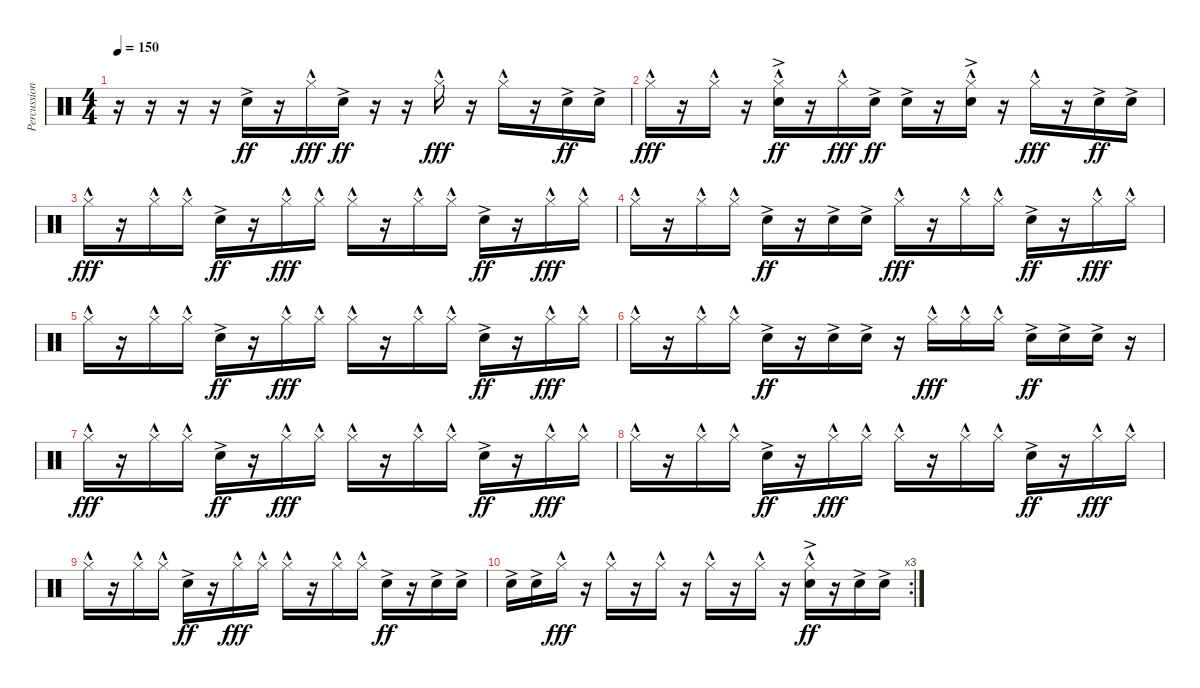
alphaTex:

\track ("Percussion" "Percussion") {instrument percussion}
\staff {score}
\articulation defaults
\ts (4 4)
\tempo 150
\clef neutral
\ks c
r.16{dy ff} r.16 r.16 r.16 "Snare (hit) 2"{ac}.16 r.16 "Hi-Hat (closed)"{hac}.16{dy fff} "Snare (hit) 2"{ac}.16{dy ff} r.16 r.16 "Hi-Hat (closed)"{hac}.16{dy fff} r.16 "Hi-Hat (closed)"{hac}.16 r.16 "Snare (hit) 2"{ac}.16{dy ff} "Snare (hit) 2"{ac}.16 |
"Hi-Hat (closed)"{hac}.16{dy fff} r.16 "Hi-Hat (closed)"{hac}.16 r.16 ("Hi-Hat (closed)"{hac} "Snare (hit) 2"{ac}).16{dy ff} r.16 "Hi-Hat (closed)"{hac}.16{dy fff} "Snare (hit) 2"{ac}.16{dy ff} "Snare (hit) 2"{ac}.16 r.16 ("Hi-Hat (closed)"{hac} "Snare (hit) 2"{ac}).16 r.16 "Hi-Hat (closed)"{hac}.16{dy fff} r.16 "Snare (hit) 2"{ac}.16{dy ff} "Snare (hit) 2"{ac}.16 |
"Hi-Hat (closed)"{hac}.16{dy fff} r.16 "Hi-Hat (closed)"{hac}.16 "Hi-Hat (closed)"{hac}.16 "Snare (hit) 2"{ac}.16{dy ff} r.16 "Hi-Hat (closed)"{hac}.16{dy fff} "Hi-Hat (closed)"{hac}.16 "Hi-Hat (closed)"{hac}.16 r.16 "Hi-Hat (closed)"{hac}.16 "Hi-Hat (closed)"{hac}.16 "Snare (hit) 2"{ac}.16{dy ff} r.16 "Hi-Hat (closed)"{hac}.16{dy fff} "Hi-Hat (closed)"{hac}.16 |
"Hi-Hat (closed)"{hac}.16 r.16 "Hi-Hat (closed)"{hac}.16 "Hi-Hat (closed)"{hac}.16 "Snare (hit) 2"{ac}.16{dy ff} r.16 "Snare (hit) 2"{ac}.16 "Snare (hit) 2"{ac}.16 "Hi-Hat (closed)"{hac}.16{dy fff} r.16 "Hi-Hat (closed)"{hac}.16 "Hi-Hat (closed)"{hac}.16 "Snare (hit) 2"{ac}.16{dy ff} r.16 "Hi-Hat (closed)"{hac}.16{dy fff} "Hi-Hat (closed)"{hac}.16 |
"Hi-Hat (closed)"{hac}.16 r.16 "Hi-Hat (closed)"{hac}.16 "Hi-Hat (closed)"{hac}.16 "Snare (hit) 2"{ac}.16{dy ff} r.16 "Hi-Hat (closed)"{hac}.16{dy fff} "Hi-Hat (closed)"{hac}.16 "Hi-Hat (closed)"{hac}.16 r.16 "Hi-Hat (closed)"{hac}.16 "Hi-Hat (closed)"{hac}.16 "Snare (hit) 2"{ac}.16{dy ff} r.16 "Hi-Hat (closed)"{hac}.16{dy fff} "Hi-Hat (closed)"{hac}.16 |
"Hi-Hat (closed)"{hac}.16 r.16 "Hi-Hat (closed)"{hac}.16 "Hi-Hat (closed)"{hac}.16 "Snare (hit) 2"{ac}.16{dy ff} r.16 "Snare (hit) 2"{ac}.16 "Snare (hit) 2"{ac}.16 r.16 "Hi-Hat (closed)"{hac}.16{dy fff} "Hi-Hat (closed)"{hac}.16 "Hi-Hat (closed)"{hac}.16 "Snare (hit) 2"{ac}.16{dy ff} "Snare (hit) 2"{ac}.16 "Snare (hit) 2"{ac}.16 r.16 |
"Hi-Hat (closed)"{hac}.16{dy fff} r.16 "Hi-Hat (closed)"{hac}.16 "Hi-Hat (closed)"{hac}.16 "Snare (hit) 2"{ac}.16{dy ff} r.16 "Hi-Hat (closed)"{hac}.16{dy fff} "Hi-Hat (closed)"{hac}.16 "Hi-Hat (closed)"{hac}.16 r.16 "Hi-Hat (closed)"{hac}.16 "Hi-Hat (closed)"{hac}.16 "Snare (hit) 2"{ac}.16{dy ff} r.16 "Hi-Hat (closed)"{hac}.16{dy fff} "Hi-Hat (closed)"{hac}.16 |
"Hi-Hat (closed)"{hac}.16 r.16 "Hi-Hat (closed)"{hac}.16 "Hi-Hat (closed)"{hac}.16 "Snare (hit) 2"{ac}.16{dy ff} r.16 "Hi-Hat (closed)"{hac}.16{dy fff} "Hi-Hat (closed)"{hac}.16 "Hi-Hat (closed)"{hac}.16 r.16 "Hi-Hat (closed)"{hac}.16 "Hi-Hat (closed)"{hac}.16 "Snare (hit) 2"{ac}.16{dy ff} r.16 "Hi-Hat (closed)"{hac}.16{dy fff} "Hi-Hat (closed)"{hac}.16 |
"Hi-Hat (closed)"{hac}.16 r.16 "Hi-Hat (closed)"{hac}.16 "Hi-Hat (closed)"{hac}.16 "Snare (hit) 2"{ac}.16{dy ff} r.16 "Hi-Hat (closed)"{hac}.16{dy fff} "Hi-Hat (closed)"{hac}.16 "Hi-Hat (closed)"{hac}.16 r.16 "Hi-Hat (closed)"{hac}.16 "Hi-Hat (closed)"{hac}.16 "Snare (hit) 2"{ac}.16{dy ff} r.16 "Snare (hit) 2"{ac}.16 "Snare (hit) 2"{ac}.16 |
\rc 3 "Snare (hit) 2"{ac}.16 "Snare (hit) 2"{ac}.16 "Hi-Hat (closed)"{hac}.16{dy fff}
r.16 "Hi-Hat (closed)"{hac}.16 r.16 "Hi-Hat (closed)"{hac}.16 r.16 "Hi-Hat (closed)"{hac}.16 r.16 "Hi-Hat (closed)"{hac}.16 r.16 ("Hi-Hat (closed)"{hac} "Snare (hit) 2"{ac}).16{dy ff} r.16 "Snare (hit) 2"{ac}.16 "Snare (hit) 2"{ac}.16
